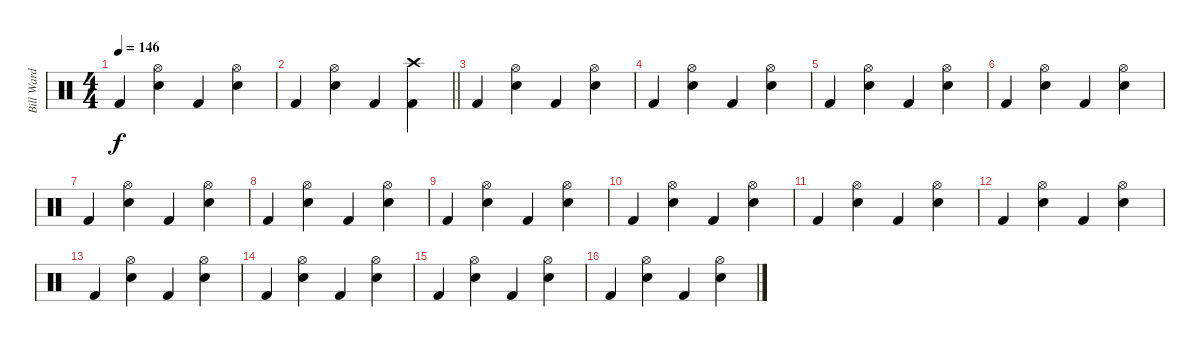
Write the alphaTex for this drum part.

\track ("Bill Ward" "Bill Ward") {instrument percussion}
\staff {score}
\articulation defaults
\ts (4 4)
\tempo 146
\clef neutral
\ks c "Kick (hit) 2".4{dy f}
("Hi-Hat (open)" "Snare (hit) 2").4 "Kick (hit) 2".4 ("Hi-Hat (open)" "Snare (hit) 2").4 |
\barLineRight lightlight "Kick (hit) 2".4
("Hi-Hat (open)" "Snare (hit) 2").4 "Kick (hit) 2".4 ("Crash high (hit)" "Kick (hit) 2").4 |
"Kick (hit) 2".4 ("Hi-Hat (open)" "Snare (hit) 2").4 "Kick (hit) 2".4 ("Hi-Hat (open)" "Snare (hit) 2").4 |
"Kick (hit) 2".4 ("Hi-Hat (open)" "Snare (hit) 2").4 "Kick (hit) 2".4 ("Hi-Hat (open)" "Snare (hit) 2").4 |
"Kick (hit) 2".4 ("Hi-Hat (open)" "Snare (hit) 2").4 "Kick (hit) 2".4 ("Hi-Hat (open)" "Snare (hit) 2").4 |
"Kick (hit) 2".4 ("Hi-Hat (open)" "Snare (hit) 2").4 "Kick (hit) 2".4 ("Hi-Hat (open)" "Snare (hit) 2").4 |
"Kick (hit) 2".4 ("Hi-Hat (open)" "Snare (hit) 2").4 "Kick (hit) 2".4 ("Hi-Hat (open)" "Snare (hit) 2").4 |
"Kick (hit) 2".4 ("Hi-Hat (open)" "Snare (hit) 2").4 "Kick (hit) 2".4 ("Hi-Hat (open)" "Snare (hit) 2").4 |
"Kick (hit) 2".4 ("Hi-Hat (open)" "Snare (hit) 2").4 "Kick (hit) 2".4 ("Hi-Hat (open)" "Snare (hit) 2").4 |
"Kick (hit) 2".4 ("Hi-Hat (open)" "Snare (hit) 2").4 "Kick (hit) 2".4 ("Hi-Hat (open)" "Snare (hit) 2").4 |
"Kick (hit) 2".4 ("Hi-Hat (open)" "Snare (hit) 2").4 "Kick (hit) 2".4 ("Hi-Hat (open)" "Snare (hit) 2").4 |
"Kick (hit) 2".4 ("Hi-Hat (open)" "Snare (hit) 2").4 "Kick (hit) 2".4 ("Hi-Hat (open)" "Snare (hit) 2").4 |
"Kick (hit) 2".4 ("Hi-Hat (open)" "Snare (hit) 2").4 "Kick (hit) 2".4 ("Hi-Hat (open)" "Snare (hit) 2").4 |
"Kick (hit) 2".4 ("Hi-Hat (open)" "Snare (hit) 2").4 "Kick (hit) 2".4 ("Hi-Hat (open)" "Snare (hit) 2").4 |
"Kick (hit) 2".4 ("Hi-Hat (open)" "Snare (hit) 2").4 "Kick (hit) 2".4 ("Hi-Hat (open)" "Snare (hit) 2").4 |
"Kick (hit) 2".4 ("Hi-Hat (open)" "Snare (hit) 2").4 "Kick (hit) 2".4 ("Hi-Hat (open)" "Snare (hit) 2").4
